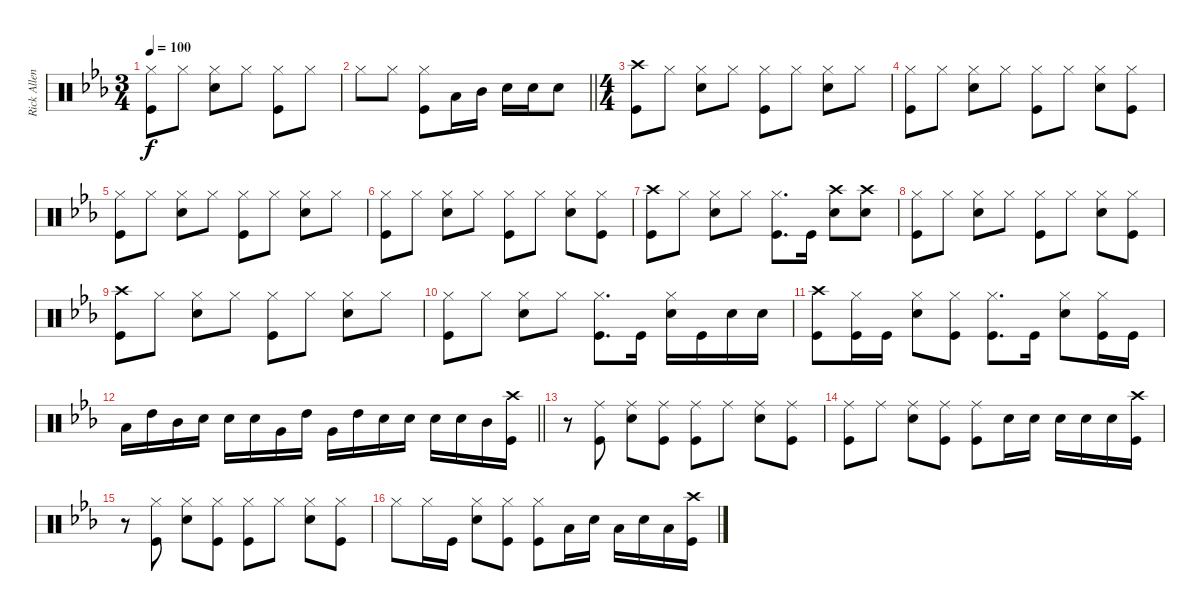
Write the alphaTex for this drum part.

\track ("Rick Allen" "Rick Allen") {instrument percussion}
\staff {score}
\articulation defaults
\ts (3 4)
\tempo 100
\clef neutral
\ks cminor
("Hi-Hat (closed)" "Kick (hit)").8{dy f} "Hi-Hat (closed)".8 ("Hi-Hat (closed)" "Snare (hit) 2").8 "Hi-Hat (closed)".8 ("Hi-Hat (closed)" "Kick (hit)").8 "Hi-Hat (closed)".8 |
\barLineRight lightlight "Hi-Hat (closed)".8 "Hi-Hat (closed)".8
("Hi-Hat (closed)" "Kick (hit)").8 "Low Tom (hit)".16 "Mid Tom (hit)".16 "Snare (hit) 2".16 "Snare (hit) 2".16 "Snare (hit) 2".8 |
\ts (4 4)
("Crash high (hit)" "Kick (hit)").8 "Hi-Hat (closed)".8 ("Hi-Hat (closed)" "Snare (hit) 2").8 "Hi-Hat (closed)".8 ("Hi-Hat (closed)" "Kick (hit)").8 "Hi-Hat (closed)".8 ("Hi-Hat (closed)" "Snare (hit) 2").8 "Hi-Hat (closed)".8 |
("Hi-Hat (closed)" "Kick (hit)").8 "Hi-Hat (closed)".8 ("Hi-Hat (closed)" "Snare (hit) 2").8 "Hi-Hat (closed)".8 ("Hi-Hat (closed)" "Kick (hit)").8 "Hi-Hat (closed)".8 ("Hi-Hat (closed)" "Snare (hit) 2").8 ("Hi-Hat (closed)" "Kick (hit)").8 |
("Hi-Hat (closed)" "Kick (hit)").8 "Hi-Hat (closed)".8 ("Hi-Hat (closed)" "Snare (hit) 2").8 "Hi-Hat (closed)".8 ("Hi-Hat (closed)" "Kick (hit)").8 "Hi-Hat (closed)".8 ("Hi-Hat (closed)" "Snare (hit) 2").8 "Hi-Hat (closed)".8 |
("Hi-Hat (closed)" "Kick (hit)").8 "Hi-Hat (closed)".8 ("Hi-Hat (closed)" "Snare (hit) 2").8 "Hi-Hat (closed)".8 ("Hi-Hat (closed)" "Kick (hit)").8 "Hi-Hat (closed)".8 ("Hi-Hat (closed)" "Snare (hit) 2").8 ("Hi-Hat (closed)" "Kick (hit)").8 |
("Crash high (hit)" "Kick (hit)").8 "Hi-Hat (closed)".8 ("Hi-Hat (closed)" "Snare (hit) 2").8 "Hi-Hat (closed)".8 ("Hi-Hat (closed)" "Kick (hit)").8{d} "Kick (hit)".16 ("Crash high (hit)" "Snare (hit) 2").8 ("Crash high (hit)" "Snare (hit) 2").8 |
("Hi-Hat (closed)" "Kick (hit)").8 "Hi-Hat (closed)".8 ("Hi-Hat (closed)" "Snare (hit) 2").8 "Hi-Hat (closed)".8 ("Hi-Hat (closed)" "Kick (hit)").8 "Hi-Hat (closed)".8 ("Hi-Hat (closed)" "Snare (hit) 2").8 ("Hi-Hat (closed)" "Kick (hit)").8 |
("Crash high (hit)" "Kick (hit)").8 "Hi-Hat (closed)".8 ("Hi-Hat (closed)" "Snare (hit) 2").8 "Hi-Hat (closed)".8 ("Hi-Hat (closed)" "Kick (hit)").8 "Hi-Hat (closed)".8 ("Hi-Hat (closed)" "Snare (hit) 2").8 "Hi-Hat (closed)".8 |
("Hi-Hat (closed)" "Kick (hit)").8 "Hi-Hat (closed)".8 ("Hi-Hat (closed)" "Snare (hit) 2").8 "Hi-Hat (closed)".8 ("Hi-Hat (closed)" "Kick (hit)").8{d} "Kick (hit)".16 ("Hi-Hat (closed)" "Snare (hit) 2").16 "Kick (hit)".16 "Snare (hit) 2".16 "Snare (hit) 2".16 |
("Crash high (hit)" "Kick (hit)").8 ("Hi-Hat (closed)" "Kick (hit)").16 "Kick (hit)".16 ("Hi-Hat (closed)" "Snare (hit) 2").8 ("Hi-Hat (closed)" "Kick (hit)").8 ("Hi-Hat (closed)" "Kick (hit)").8{d} "Kick (hit)".16 ("Hi-Hat (closed)" "Snare (hit) 2").8 ("Hi-Hat (closed)" "Kick (hit)").16 "Kick (hit)".16 |
\barLineRight lightlight "Low Tom (hit)".16 "High Tom (hit)".16 "Mid Tom (hit)".16 "Snare (hit) 2".16 "Snare (hit) 2".16 "Snare (hit) 2".16 "Very Low Tom (hit)".16 "High Tom (hit)".16 "Very Low Tom (hit)".16 "High Tom (hit)".16 "Snare (hit) 2".16 "Snare (hit) 2".16 "Snare (hit) 2".16 "Snare (hit) 2".16 "Mid Tom (hit)".16
("Crash high (hit)" "Kick (hit)").16 |
r.8 ("Ride (middle)" "Kick (hit)").8 ("Ride (middle)" "Snare (hit) 2").8 ("Ride (middle)" "Kick (hit)").8 ("Ride (middle)" "Kick (hit)").8 "Ride (middle)".8 ("Ride (middle)" "Snare (hit) 2").8 ("Ride (middle)" "Kick (hit)").8 |
("Ride (middle)" "Kick (hit)").8 "Ride (middle)".8 ("Ride (middle)" "Snare (hit) 2").8 ("Ride (middle)" "Kick (hit)").8 ("Ride (middle)" "Kick (hit)").8 "Snare (hit) 2".16 "Snare (hit) 2".16 "Snare (hit) 2".16 "Snare (hit) 2".16 "Snare (hit) 2".16 ("Crash high (hit)" "Kick (hit)").16 |
r.8 ("Hi-Hat (closed)" "Kick (hit)").8 ("Hi-Hat (closed)" "Snare (hit) 2").8 ("Hi-Hat (closed)" "Kick (hit)").8 ("Hi-Hat (closed)" "Kick (hit)").8 "Hi-Hat (closed)".8 ("Hi-Hat (closed)" "Snare (hit) 2").8 ("Hi-Hat (closed)" "Kick (hit)").8 |
"Hi-Hat (closed)".8 "Hi-Hat (closed)".16 "Kick (hit)".16 ("Hi-Hat (closed)" "Snare (hit) 2").8 ("Hi-Hat (closed)" "Kick (hit)").8 ("Hi-Hat (closed)" "Kick (hit)").8 "Low Tom (hit)".16 "Snare (hit) 2".16 "Low Tom (hit)".16 "Snare (hit) 2".16 "Low Tom (hit)".16 ("Crash high (hit)" "Kick (hit)").16
